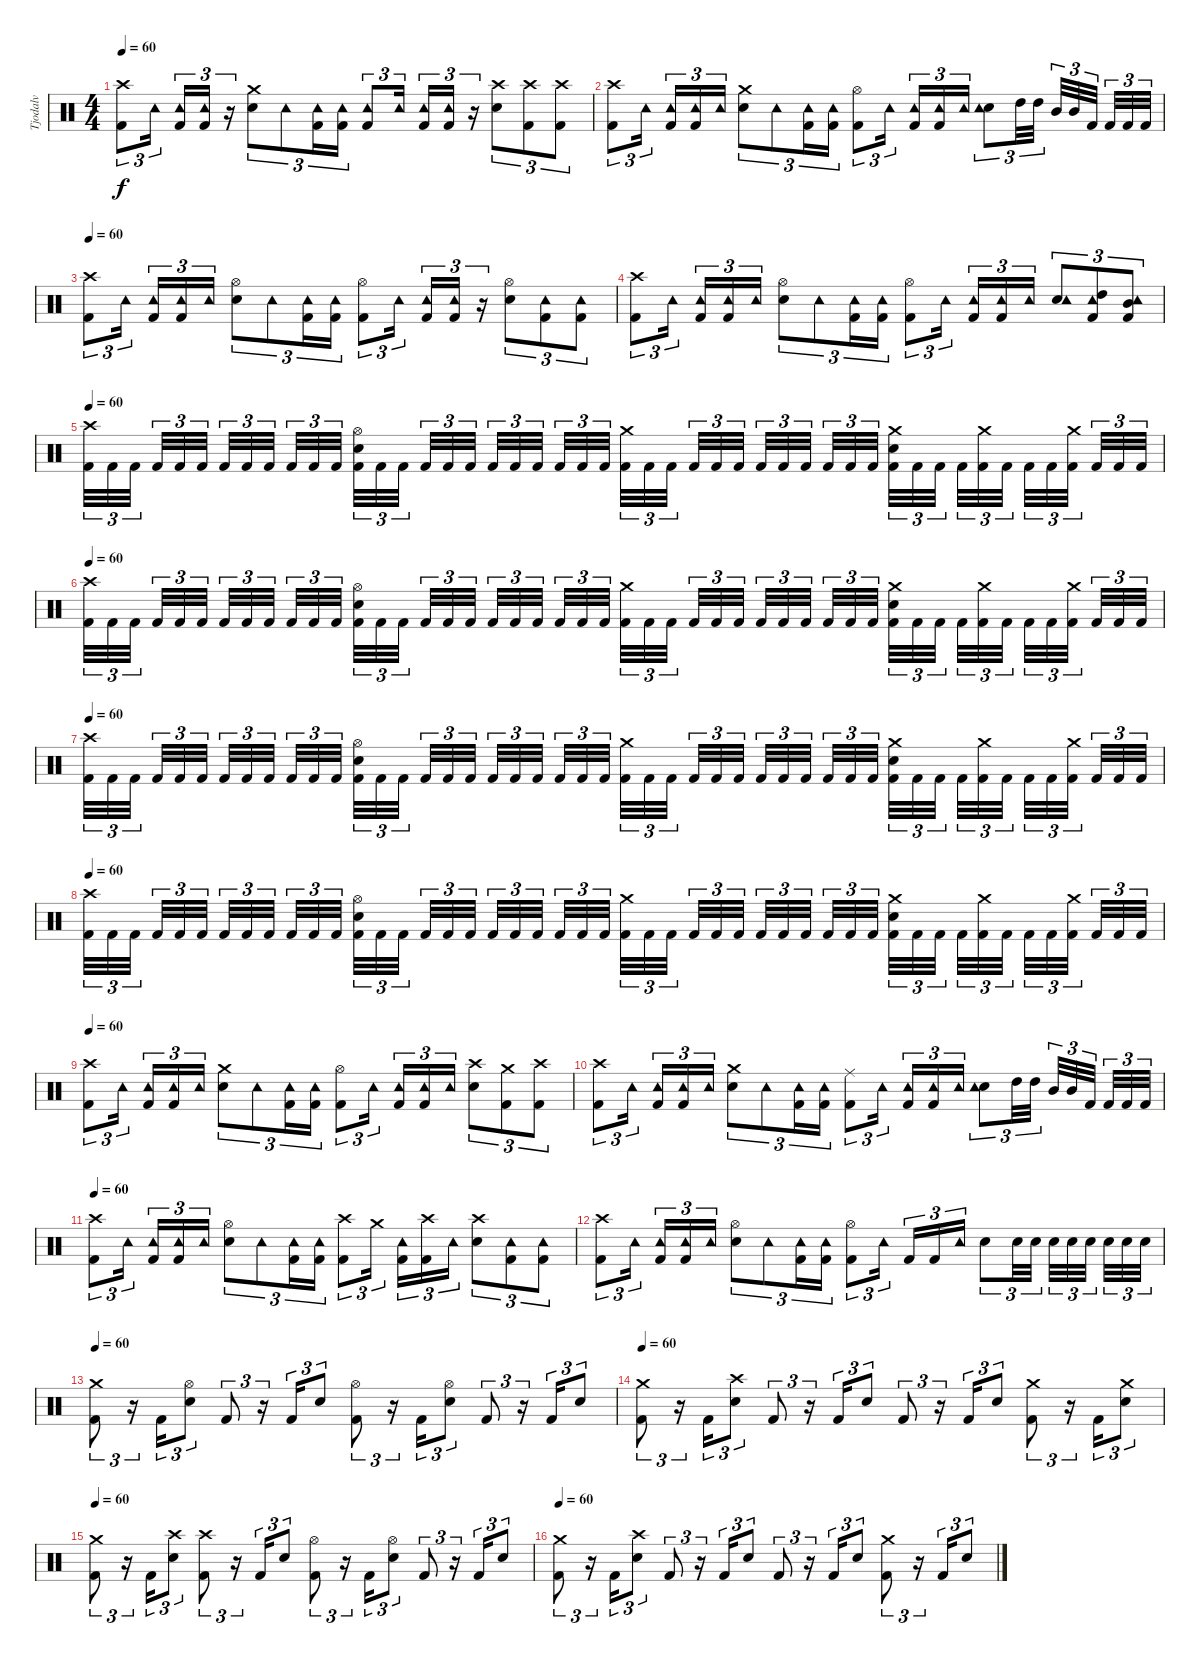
\track ("Tjodalv" "Tjodalv") {instrument percussion}
\staff {score}
\articulation defaults
\ts (4 4)
\tempo 60
\clef neutral
\ks c
("Crash high (hit)" "Kick (hit) 2").8{tu (3 2) dy f} "Tambourine (hit)".16{tu (3 2)} ("Tambourine (hit)" "Kick (hit) 2").16{tu (3 2)} ("Tambourine (hit)" "Kick (hit) 2").16{tu (3 2)} r.16{tu (3 2)} ("Snare (hit) 2" "Crash medium (hit)").8{tu (3 2)} "Tambourine (hit)".8{tu (3 2)} ("Kick (hit) 2" "Tambourine (hit)").16{tu (3 2)} ("Kick (hit) 2" "Tambourine (hit)").16{tu (3 2)} ("Tambourine (hit)" "Kick (hit) 2").8{tu (3 2)} "Tambourine (hit)".16{tu (3 2)} ("Tambourine (hit)" "Kick (hit) 2").16{tu (3 2)} ("Tambourine (hit)" "Kick (hit) 2").16{tu (3 2)} r.16{tu (3 2)} ("Snare (hit) 2" "Crash high (hit)").8{tu (3 2)} ("Kick (hit) 2" "Crash high (hit)").8{tu (3 2)} ("Kick (hit) 2" "Crash high (hit)").8{tu (3 2)} |
("Crash high (hit)" "Kick (hit) 2").8{tu (3 2)} "Tambourine (hit)".16{tu (3 2)} ("Tambourine (hit)" "Kick (hit) 2").16{tu (3 2)} ("Tambourine (hit)" "Kick (hit) 2").16{tu (3 2)} "Tambourine (hit)".16{tu (3 2)} ("Snare (hit) 2" "Crash medium (hit)").8{tu (3 2)} "Tambourine (hit)".8{tu (3 2)} ("Kick (hit) 2" "Tambourine (hit)").16{tu (3 2)} ("Kick (hit) 2" "Tambourine (hit)").16{tu (3 2)} ("Hi-Hat (open)" "Kick (hit) 2").8{tu (3 2)} "Tambourine (hit)".16{tu (3 2)} ("Tambourine (hit)" "Kick (hit) 2").16{tu (3 2)} ("Tambourine (hit)" "Kick (hit) 2").16{tu (3 2)} "Tambourine (hit)".16{tu (3 2)} ("Snare (hit) 2" "Tambourine (hit)").8{tu (3 2)} "High Tom (hit)".32{tu (3 2)} "High Tom (hit)".32{tu (3 2)} "Mid Tom (hit)".32{tu (3 2)} "Mid Tom (hit)".32{tu (3 2)} "Kick (hit) 2".32{tu (3 2)} "Kick (hit) 2".32{tu (3 2)} "Kick (hit) 2".32{tu (3 2)} "Kick (hit) 2".32{tu (3 2)} |
\tempo 60
("Crash high (hit)" "Kick (hit) 2").8{tu (3 2)} "Tambourine (hit)".16{tu (3 2)} ("Kick (hit) 2" "Tambourine (hit)").16{tu (3 2)} ("Kick (hit) 2" "Tambourine (hit)").16{tu (3 2)} "Tambourine (hit)".16{tu (3 2)} ("Snare (hit) 2" "Hi-Hat (open)").8{tu (3 2)} "Tambourine (hit)".8{tu (3 2)} ("Kick (hit) 2" "Tambourine (hit)").16{tu (3 2)} ("Kick (hit) 2" "Tambourine (hit)").16{tu (3 2)} ("Hi-Hat (open)" "Kick (hit) 2").8{tu (3 2)} "Tambourine (hit)".16{tu (3 2)} ("Kick (hit) 2" "Tambourine (hit)").16{tu (3 2)} ("Kick (hit) 2" "Tambourine (hit)").16{tu (3 2)} r.16{tu (3 2)} ("Snare (hit) 2" "Hi-Hat (open)").8{tu (3 2)} ("Kick (hit) 2" "Tambourine (hit)").8{tu (3 2)} ("Kick (hit) 2" "Tambourine (hit)").8{tu (3 2)} |
("Crash high (hit)" "Kick (hit) 2").8{tu (3 2)} "Tambourine (hit)".16{tu (3 2)} ("Kick (hit) 2" "Tambourine (hit)").16{tu (3 2)} ("Kick (hit) 2" "Tambourine (hit)").16{tu (3 2)} "Tambourine (hit)".16{tu (3 2)} ("Snare (hit) 2" "Hi-Hat (open)").8{tu (3 2)} "Tambourine (hit)".8{tu (3 2)} ("Kick (hit) 2" "Tambourine (hit)").16{tu (3 2)} ("Kick (hit) 2" "Tambourine (hit)").16{tu (3 2)} ("Hi-Hat (open)" "Kick (hit) 2").8{tu (3 2)} "Tambourine (hit)".16{tu (3 2)} ("Kick (hit) 2" "Tambourine (hit)").16{tu (3 2)} ("Kick (hit) 2" "Tambourine (hit)").16{tu (3 2)} "Tambourine (hit)".16{tu (3 2)} ("Snare (hit) 2" "Tambourine (hit)").8{tu (3 2)} ("Kick (hit) 2" "High Tom (hit)" "Tambourine (hit)").8{tu (3 2)} ("Kick (hit) 2" "Mid Tom (hit)" "Tambourine (hit)").8{tu (3 2)} |
\tempo 60
("Kick (hit) 2" "Crash high (hit)").32{tu (3 2)} "Kick (hit) 2".32{tu (3 2)} "Kick (hit) 2".32{tu (3 2)} "Kick (hit) 2".32{tu (3 2)} "Kick (hit) 2".32{tu (3 2)} "Kick (hit) 2".32{tu (3 2)} "Kick (hit) 2".32{tu (3 2)} "Kick (hit) 2".32{tu (3 2)} "Kick (hit) 2".32{tu (3 2)} "Kick (hit) 2".32{tu (3 2)} "Kick (hit) 2".32{tu (3 2)} "Kick (hit) 2".32{tu (3 2)} ("Kick (hit) 2" "Snare (hit) 2" "Hi-Hat (open)").32{tu (3 2)} "Kick (hit) 2".32{tu (3 2)} "Kick (hit) 2".32{tu (3 2)} "Kick (hit) 2".32{tu (3 2)} "Kick (hit) 2".32{tu (3 2)} "Kick (hit) 2".32{tu (3 2)} "Kick (hit) 2".32{tu (3 2)} "Kick (hit) 2".32{tu (3 2)} "Kick (hit) 2".32{tu (3 2)} "Kick (hit) 2".32{tu (3 2)} "Kick (hit) 2".32{tu (3 2)} "Kick (hit) 2".32{tu (3 2)} ("Kick (hit) 2" "Crash medium (hit)").32{tu (3 2)} "Kick (hit) 2".32{tu (3 2)} "Kick (hit) 2".32{tu (3 2)} "Kick (hit) 2".32{tu (3 2)} "Kick (hit) 2".32{tu (3 2)} "Kick (hit) 2".32{tu (3 2)} "Kick (hit) 2".32{tu (3 2)} "Kick (hit) 2".32{tu (3 2)} "Kick (hit) 2".32{tu (3 2)} "Kick (hit) 2".32{tu (3 2)} "Kick (hit) 2".32{tu (3 2)} "Kick (hit) 2".32{tu (3 2)} ("Kick (hit) 2" "Snare (hit) 2" "Crash medium (hit)").32{tu (3 2)} "Kick (hit) 2".32{tu (3 2)} "Kick (hit) 2".32{tu (3 2)} "Kick (hit) 2".32{tu (3 2)} ("Kick (hit) 2" "Crash medium (hit)").32{tu (3 2)} "Kick (hit) 2".32{tu (3 2)} "Kick (hit) 2".32{tu (3 2)} "Kick (hit) 2".32{tu (3 2)} ("Kick (hit) 2" "Crash medium (hit)").32{tu (3 2)} "Kick (hit) 2".32{tu (3 2)} "Kick (hit) 2".32{tu (3 2)} "Kick (hit) 2".32{tu (3 2)} |
\tempo 60
("Kick (hit) 2" "Crash high (hit)").32{tu (3 2)} "Kick (hit) 2".32{tu (3 2)} "Kick (hit) 2".32{tu (3 2)} "Kick (hit) 2".32{tu (3 2)} "Kick (hit) 2".32{tu (3 2)} "Kick (hit) 2".32{tu (3 2)} "Kick (hit) 2".32{tu (3 2)} "Kick (hit) 2".32{tu (3 2)} "Kick (hit) 2".32{tu (3 2)} "Kick (hit) 2".32{tu (3 2)} "Kick (hit) 2".32{tu (3 2)} "Kick (hit) 2".32{tu (3 2)} ("Kick (hit) 2" "Snare (hit) 2" "Hi-Hat (open)").32{tu (3 2)} "Kick (hit) 2".32{tu (3 2)} "Kick (hit) 2".32{tu (3 2)} "Kick (hit) 2".32{tu (3 2)} "Kick (hit) 2".32{tu (3 2)} "Kick (hit) 2".32{tu (3 2)} "Kick (hit) 2".32{tu (3 2)} "Kick (hit) 2".32{tu (3 2)} "Kick (hit) 2".32{tu (3 2)} "Kick (hit) 2".32{tu (3 2)} "Kick (hit) 2".32{tu (3 2)} "Kick (hit) 2".32{tu (3 2)} ("Kick (hit) 2" "Crash medium (hit)").32{tu (3 2)} "Kick (hit) 2".32{tu (3 2)} "Kick (hit) 2".32{tu (3 2)} "Kick (hit) 2".32{tu (3 2)} "Kick (hit) 2".32{tu (3 2)} "Kick (hit) 2".32{tu (3 2)} "Kick (hit) 2".32{tu (3 2)} "Kick (hit) 2".32{tu (3 2)} "Kick (hit) 2".32{tu (3 2)} "Kick (hit) 2".32{tu (3 2)} "Kick (hit) 2".32{tu (3 2)} "Kick (hit) 2".32{tu (3 2)} ("Kick (hit) 2" "Snare (hit) 2" "Crash medium (hit)").32{tu (3 2)} "Kick (hit) 2".32{tu (3 2)} "Kick (hit) 2".32{tu (3 2)} "Kick (hit) 2".32{tu (3 2)} ("Kick (hit) 2" "Crash medium (hit)").32{tu (3 2)} "Kick (hit) 2".32{tu (3 2)} "Kick (hit) 2".32{tu (3 2)} "Kick (hit) 2".32{tu (3 2)} ("Kick (hit) 2" "Crash medium (hit)").32{tu (3 2)} "Kick (hit) 2".32{tu (3 2)} "Kick (hit) 2".32{tu (3 2)} "Kick (hit) 2".32{tu (3 2)} |
\tempo 60
("Kick (hit) 2" "Crash high (hit)").32{tu (3 2)} "Kick (hit) 2".32{tu (3 2)} "Kick (hit) 2".32{tu (3 2)} "Kick (hit) 2".32{tu (3 2)} "Kick (hit) 2".32{tu (3 2)} "Kick (hit) 2".32{tu (3 2)} "Kick (hit) 2".32{tu (3 2)} "Kick (hit) 2".32{tu (3 2)} "Kick (hit) 2".32{tu (3 2)} "Kick (hit) 2".32{tu (3 2)} "Kick (hit) 2".32{tu (3 2)} "Kick (hit) 2".32{tu (3 2)} ("Kick (hit) 2" "Snare (hit) 2" "Hi-Hat (open)").32{tu (3 2)} "Kick (hit) 2".32{tu (3 2)} "Kick (hit) 2".32{tu (3 2)} "Kick (hit) 2".32{tu (3 2)} "Kick (hit) 2".32{tu (3 2)} "Kick (hit) 2".32{tu (3 2)} "Kick (hit) 2".32{tu (3 2)} "Kick (hit) 2".32{tu (3 2)} "Kick (hit) 2".32{tu (3 2)} "Kick (hit) 2".32{tu (3 2)} "Kick (hit) 2".32{tu (3 2)} "Kick (hit) 2".32{tu (3 2)} ("Kick (hit) 2" "Crash medium (hit)").32{tu (3 2)} "Kick (hit) 2".32{tu (3 2)} "Kick (hit) 2".32{tu (3 2)} "Kick (hit) 2".32{tu (3 2)} "Kick (hit) 2".32{tu (3 2)} "Kick (hit) 2".32{tu (3 2)} "Kick (hit) 2".32{tu (3 2)} "Kick (hit) 2".32{tu (3 2)} "Kick (hit) 2".32{tu (3 2)} "Kick (hit) 2".32{tu (3 2)} "Kick (hit) 2".32{tu (3 2)} "Kick (hit) 2".32{tu (3 2)} ("Kick (hit) 2" "Snare (hit) 2" "Crash medium (hit)").32{tu (3 2)} "Kick (hit) 2".32{tu (3 2)} "Kick (hit) 2".32{tu (3 2)} "Kick (hit) 2".32{tu (3 2)} ("Kick (hit) 2" "Crash medium (hit)").32{tu (3 2)} "Kick (hit) 2".32{tu (3 2)} "Kick (hit) 2".32{tu (3 2)} "Kick (hit) 2".32{tu (3 2)} ("Kick (hit) 2" "Crash medium (hit)").32{tu (3 2)} "Kick (hit) 2".32{tu (3 2)} "Kick (hit) 2".32{tu (3 2)} "Kick (hit) 2".32{tu (3 2)} |
\tempo 60
("Kick (hit) 2" "Crash high (hit)").32{tu (3 2)} "Kick (hit) 2".32{tu (3 2)} "Kick (hit) 2".32{tu (3 2)} "Kick (hit) 2".32{tu (3 2)} "Kick (hit) 2".32{tu (3 2)} "Kick (hit) 2".32{tu (3 2)} "Kick (hit) 2".32{tu (3 2)} "Kick (hit) 2".32{tu (3 2)} "Kick (hit) 2".32{tu (3 2)} "Kick (hit) 2".32{tu (3 2)} "Kick (hit) 2".32{tu (3 2)} "Kick (hit) 2".32{tu (3 2)} ("Kick (hit) 2" "Snare (hit) 2" "Hi-Hat (open)").32{tu (3 2)} "Kick (hit) 2".32{tu (3 2)} "Kick (hit) 2".32{tu (3 2)} "Kick (hit) 2".32{tu (3 2)} "Kick (hit) 2".32{tu (3 2)} "Kick (hit) 2".32{tu (3 2)} "Kick (hit) 2".32{tu (3 2)} "Kick (hit) 2".32{tu (3 2)} "Kick (hit) 2".32{tu (3 2)} "Kick (hit) 2".32{tu (3 2)} "Kick (hit) 2".32{tu (3 2)} "Kick (hit) 2".32{tu (3 2)} ("Kick (hit) 2" "Crash medium (hit)").32{tu (3 2)} "Kick (hit) 2".32{tu (3 2)} "Kick (hit) 2".32{tu (3 2)} "Kick (hit) 2".32{tu (3 2)} "Kick (hit) 2".32{tu (3 2)} "Kick (hit) 2".32{tu (3 2)} "Kick (hit) 2".32{tu (3 2)} "Kick (hit) 2".32{tu (3 2)} "Kick (hit) 2".32{tu (3 2)} "Kick (hit) 2".32{tu (3 2)} "Kick (hit) 2".32{tu (3 2)} "Kick (hit) 2".32{tu (3 2)} ("Kick (hit) 2" "Snare (hit) 2" "Crash medium (hit)").32{tu (3 2)} "Kick (hit) 2".32{tu (3 2)} "Kick (hit) 2".32{tu (3 2)} "Kick (hit) 2".32{tu (3 2)} ("Kick (hit) 2" "Crash medium (hit)").32{tu (3 2)} "Kick (hit) 2".32{tu (3 2)} "Kick (hit) 2".32{tu (3 2)} "Kick (hit) 2".32{tu (3 2)} ("Kick (hit) 2" "Crash medium (hit)").32{tu (3 2)} "Kick (hit) 2".32{tu (3 2)} "Kick (hit) 2".32{tu (3 2)} "Kick (hit) 2".32{tu (3 2)} |
\tempo 60
("Crash high (hit)" "Kick (hit) 2").8{tu (3 2)} "Tambourine (hit)".16{tu (3 2)} ("Kick (hit) 2" "Tambourine (hit)").16{tu (3 2)} ("Kick (hit) 2" "Tambourine (hit)").16{tu (3 2)} "Tambourine (hit)".16{tu (3 2)} ("Snare (hit) 2" "Crash medium (hit)").8{tu (3 2)} "Tambourine (hit)".8{tu (3 2)} ("Kick (hit) 2" "Tambourine (hit)").16{tu (3 2)} ("Kick (hit) 2" "Tambourine (hit)").16{tu (3 2)} ("Hi-Hat (open)" "Kick (hit) 2").8{tu (3 2)} "Tambourine (hit)".16{tu (3 2)} ("Kick (hit) 2" "Tambourine (hit)").16{tu (3 2)} ("Kick (hit) 2" "Tambourine (hit)").16{tu (3 2)} "Tambourine (hit)".16{tu (3 2)} ("Snare (hit) 2" "Crash high (hit)").8{tu (3 2)} ("Kick (hit) 2" "Crash medium (hit)").8{tu (3 2)} ("Kick (hit) 2" "Crash high (hit)").8{tu (3 2)} |
("Crash high (hit)" "Kick (hit) 2").8{tu (3 2)} "Tambourine (hit)".16{tu (3 2)} ("Kick (hit) 2" "Tambourine (hit)").16{tu (3 2)} ("Kick (hit) 2" "Tambourine (hit)").16{tu (3 2)} "Tambourine (hit)".16{tu (3 2)} ("Snare (hit) 2" "Crash medium (hit)").8{tu (3 2)} "Tambourine (hit)".8{tu (3 2)} ("Kick (hit) 2" "Tambourine (hit)").16{tu (3 2)} ("Kick (hit) 2" "Tambourine (hit)").16{tu (3 2)} ("Ride (middle)" "Kick (hit) 2").8{tu (3 2)} "Tambourine (hit)".16{tu (3 2)} ("Kick (hit) 2" "Tambourine (hit)").16{tu (3 2)} ("Kick (hit) 2" "Tambourine (hit)").16{tu (3 2)} "Tambourine (hit)".16{tu (3 2)} ("Snare (hit) 2" "Tambourine (hit)").8{tu (3 2)} "High Tom (hit)".32{tu (3 2)} "High Tom (hit)".32{tu (3 2)} "Mid Tom (hit)".32{tu (3 2)} "Mid Tom (hit)".32{tu (3 2)} "Kick (hit) 2".32{tu (3 2)} "Kick (hit) 2".32{tu (3 2)} "Kick (hit) 2".32{tu (3 2)} "Kick (hit) 2".32{tu (3 2)} |
\tempo 60
("Crash high (hit)" "Kick (hit) 2").8{tu (3 2)} "Tambourine (hit)".16{tu (3 2)} ("Kick (hit) 2" "Tambourine (hit)").16{tu (3 2)} ("Kick (hit) 2" "Tambourine (hit)").16{tu (3 2)} "Tambourine (hit)".16{tu (3 2)} ("Snare (hit) 2" "Hi-Hat (open)").8{tu (3 2)} "Tambourine (hit)".8{tu (3 2)} ("Kick (hit) 2" "Tambourine (hit)").16{tu (3 2)} ("Kick (hit) 2" "Tambourine (hit)").16{tu (3 2)} ("Kick (hit) 2" "Crash high (hit)").8{tu (3 2)} "Crash medium (hit)".16{tu (3 2)} ("Kick (hit) 2" "Tambourine (hit)").16{tu (3 2)} ("Crash high (hit)" "Kick (hit) 2").16{tu (3 2)} "Tambourine (hit)".16{tu (3 2)} ("Snare (hit) 2" "Crash high (hit)").8{tu (3 2)} ("Kick (hit) 2" "Tambourine (hit)").8{tu (3 2)} ("Kick (hit) 2" "Tambourine (hit)").8{tu (3 2)} |
("Crash high (hit)" "Kick (hit) 2").8{tu (3 2)} "Tambourine (hit)".16{tu (3 2)} ("Kick (hit) 2" "Tambourine (hit)").16{tu (3 2)} ("Kick (hit) 2" "Tambourine (hit)").16{tu (3 2)} "Tambourine (hit)".16{tu (3 2)} ("Snare (hit) 2" "Hi-Hat (open)").8{tu (3 2)} "Tambourine (hit)".8{tu (3 2)} ("Kick (hit) 2" "Tambourine (hit)").16{tu (3 2)} ("Kick (hit) 2" "Tambourine (hit)").16{tu (3 2)} ("Hi-Hat (open)" "Kick (hit) 2").8{tu (3 2)} "Tambourine (hit)".16{tu (3 2)} "Kick (hit) 2".16{tu (3 2)} "Kick (hit) 2".16{tu (3 2)} "Tambourine (hit)".16{tu (3 2)} "Snare (hit) 2".8{tu (3 2)} "Snare (hit) 2".32{tu (3 2)} "Snare (hit) 2".32{tu (3 2)} "Snare (hit) 2".32{tu (3 2)} "Snare (hit) 2".32{tu (3 2)} "Snare (hit) 2".32{tu (3 2)} "Snare (hit) 2".32{tu (3 2)} "Snare (hit) 2".32{tu (3 2)} "Snare (hit) 2".32{tu (3 2)} |
\tempo 60
("Crash medium (hit)" "Kick (hit) 2").8{tu (3 2)} r.16{tu (3 2)} "Kick (hit) 2".16{tu (3 2)} ("Hi-Hat (open)" "Snare (hit) 2").8{tu (3 2)} "Kick (hit) 2".8{tu (3 2)} r.16{tu (3 2)} "Kick (hit) 2".16{tu (3 2)} "Snare (hit) 2".8{tu (3 2)} ("Hi-Hat (open)" "Kick (hit) 2").8{tu (3 2)} r.16{tu (3 2)} "Kick (hit) 2".16{tu (3 2)} ("Hi-Hat (open)" "Snare (hit) 2").8{tu (3 2)} "Kick (hit) 2".8{tu (3 2)} r.16{tu (3 2)} "Kick (hit) 2".16{tu (3 2)} "Snare (hit) 2".8{tu (3 2)} |
\tempo 60
("Crash medium (hit)" "Kick (hit) 2").8{tu (3 2)} r.16{tu (3 2)} "Kick (hit) 2".16{tu (3 2)} ("Crash high (hit)" "Snare (hit) 2").8{tu (3 2)} "Kick (hit) 2".8{tu (3 2)} r.16{tu (3 2)} "Kick (hit) 2".16{tu (3 2)} "Snare (hit) 2".8{tu (3 2)} "Kick (hit) 2".8{tu (3 2)} r.16{tu (3 2)} "Kick (hit) 2".16{tu (3 2)} "Snare (hit) 2".8{tu (3 2)} ("Kick (hit) 2" "Crash medium (hit)").8{tu (3 2)} r.16{tu (3 2)} "Kick (hit) 2".16{tu (3 2)} ("Crash medium (hit)" "Snare (hit) 2").8{tu (3 2)} |
\tempo 60
("Crash medium (hit)" "Kick (hit) 2").8{tu (3 2)} r.16{tu (3 2)} "Kick (hit) 2".16{tu (3 2)} ("Crash high (hit)" "Snare (hit) 2").8{tu (3 2)} ("Crash high (hit)" "Kick (hit) 2").8{tu (3 2)} r.16{tu (3 2)} "Kick (hit) 2".16{tu (3 2)} "Snare (hit) 2".8{tu (3 2)} ("Hi-Hat (open)" "Kick (hit) 2").8{tu (3 2)} r.16{tu (3 2)} "Kick (hit) 2".16{tu (3 2)} ("Hi-Hat (open)" "Snare (hit) 2").8{tu (3 2)} "Kick (hit) 2".8{tu (3 2)} r.16{tu (3 2)} "Kick (hit) 2".16{tu (3 2)} "Snare (hit) 2".8{tu (3 2)} |
\tempo 60
("Crash medium (hit)" "Kick (hit) 2").8{tu (3 2)} r.16{tu (3 2)} "Kick (hit) 2".16{tu (3 2)} ("Crash high (hit)" "Snare (hit) 2").8{tu (3 2)} "Kick (hit) 2".8{tu (3 2)} r.16{tu (3 2)} "Kick (hit) 2".16{tu (3 2)} "Snare (hit) 2".8{tu (3 2)} "Kick (hit) 2".8{tu (3 2)} r.16{tu (3 2)} "Kick (hit) 2".16{tu (3 2)} "Snare (hit) 2".8{tu (3 2)} ("Kick (hit) 2" "Crash medium (hit)").8{tu (3 2)} r.16{tu (3 2)} "Kick (hit) 2".16{tu (3 2)} "Snare (hit) 2".8{tu (3 2)}
